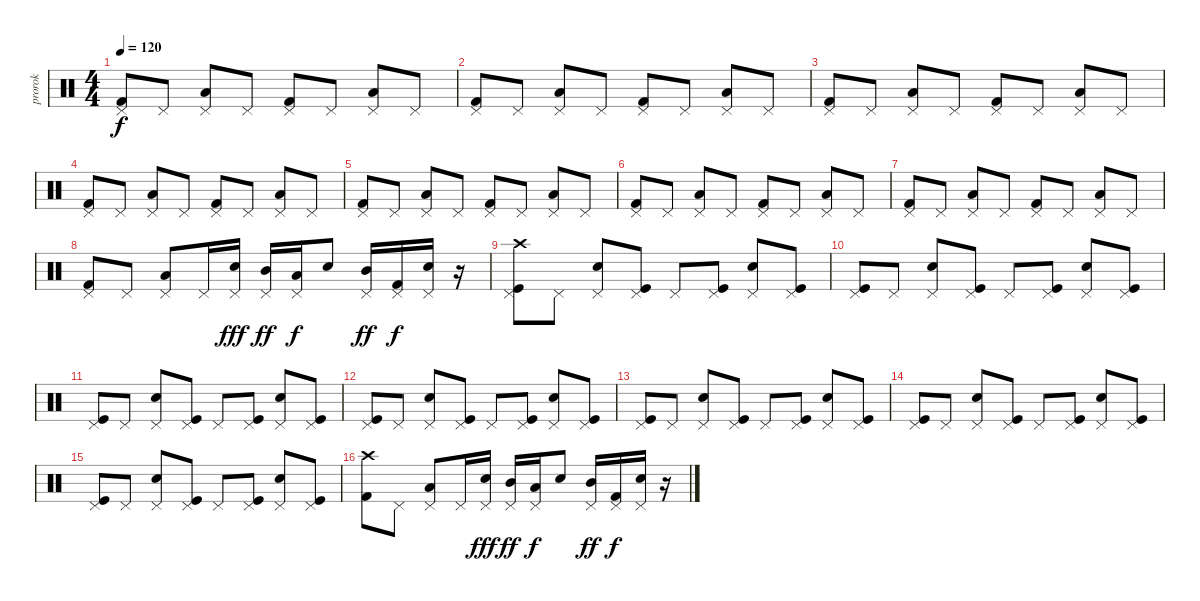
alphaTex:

\track ("prorok" "prorok") {instrument percussion}
\staff {score}
\articulation defaults
\ts (4 4)
\tempo 120
\clef neutral
\ks c
("Kick (hit) 2" "Pedal Hi-Hat (hit)").8{dy f} "Pedal Hi-Hat (hit)".8 ("Pedal Hi-Hat (hit)" "Low Tom (hit)").8 "Pedal Hi-Hat (hit)".8 ("Kick (hit) 2" "Pedal Hi-Hat (hit)").8 "Pedal Hi-Hat (hit)".8 ("Pedal Hi-Hat (hit)" "Low Tom (hit)").8 "Pedal Hi-Hat (hit)".8 |
("Kick (hit) 2" "Pedal Hi-Hat (hit)").8 "Pedal Hi-Hat (hit)".8 ("Pedal Hi-Hat (hit)" "Low Tom (hit)").8 "Pedal Hi-Hat (hit)".8 ("Kick (hit) 2" "Pedal Hi-Hat (hit)").8 "Pedal Hi-Hat (hit)".8 ("Pedal Hi-Hat (hit)" "Low Tom (hit)").8 "Pedal Hi-Hat (hit)".8 |
("Kick (hit) 2" "Pedal Hi-Hat (hit)").8 "Pedal Hi-Hat (hit)".8 ("Pedal Hi-Hat (hit)" "Low Tom (hit)").8 "Pedal Hi-Hat (hit)".8 ("Kick (hit) 2" "Pedal Hi-Hat (hit)").8 "Pedal Hi-Hat (hit)".8 ("Pedal Hi-Hat (hit)" "Low Tom (hit)").8 "Pedal Hi-Hat (hit)".8 |
("Kick (hit) 2" "Pedal Hi-Hat (hit)").8 "Pedal Hi-Hat (hit)".8 ("Pedal Hi-Hat (hit)" "Low Tom (hit)").8 "Pedal Hi-Hat (hit)".8 ("Kick (hit) 2" "Pedal Hi-Hat (hit)").8 "Pedal Hi-Hat (hit)".8 ("Pedal Hi-Hat (hit)" "Low Tom (hit)").8 "Pedal Hi-Hat (hit)".8 |
("Kick (hit) 2" "Pedal Hi-Hat (hit)").8 "Pedal Hi-Hat (hit)".8 ("Pedal Hi-Hat (hit)" "Low Tom (hit)").8 "Pedal Hi-Hat (hit)".8 ("Kick (hit) 2" "Pedal Hi-Hat (hit)").8 "Pedal Hi-Hat (hit)".8 ("Pedal Hi-Hat (hit)" "Low Tom (hit)").8 "Pedal Hi-Hat (hit)".8 |
("Kick (hit) 2" "Pedal Hi-Hat (hit)").8 "Pedal Hi-Hat (hit)".8 ("Pedal Hi-Hat (hit)" "Low Tom (hit)").8 "Pedal Hi-Hat (hit)".8 ("Kick (hit) 2" "Pedal Hi-Hat (hit)").8 "Pedal Hi-Hat (hit)".8 ("Pedal Hi-Hat (hit)" "Low Tom (hit)").8 "Pedal Hi-Hat (hit)".8 |
("Kick (hit) 2" "Pedal Hi-Hat (hit)").8 "Pedal Hi-Hat (hit)".8 ("Pedal Hi-Hat (hit)" "Low Tom (hit)").8 "Pedal Hi-Hat (hit)".8 ("Kick (hit) 2" "Pedal Hi-Hat (hit)").8 "Pedal Hi-Hat (hit)".8 ("Pedal Hi-Hat (hit)" "Low Tom (hit)").8 "Pedal Hi-Hat (hit)".8 |
("Kick (hit) 2" "Pedal Hi-Hat (hit)").8 "Pedal Hi-Hat (hit)".8 ("Low Tom (hit)" "Pedal Hi-Hat (hit)").8 "Pedal Hi-Hat (hit)".16 ("Electric Snare (hit)" "Pedal Hi-Hat (hit)").16{dy fff} ("Mid Tom (hit)" "Pedal Hi-Hat (hit)").16{dy ff} ("Low Tom (hit)" "Pedal Hi-Hat (hit)").16{dy f} "Electric Snare (hit)".8 ("Mid Tom (hit)" "Pedal Hi-Hat (hit)").16{dy ff} ("Kick (hit) 2" "Pedal Hi-Hat (hit)").16{dy f} ("Electric Snare (hit)" "Pedal Hi-Hat (hit)").16 r.16 |
("Kick (hit)" "Pedal Hi-Hat (hit)" "Crash high (hit)").8 "Pedal Hi-Hat (hit)".8 ("Electric Snare (hit)" "Pedal Hi-Hat (hit)").8 ("Kick (hit)" "Pedal Hi-Hat (hit)").8 "Pedal Hi-Hat (hit)".8 ("Kick (hit)" "Pedal Hi-Hat (hit)").8 ("Electric Snare (hit)" "Pedal Hi-Hat (hit)").8 ("Kick (hit)" "Pedal Hi-Hat (hit)").8 |
("Kick (hit)" "Pedal Hi-Hat (hit)").8 "Pedal Hi-Hat (hit)".8 ("Electric Snare (hit)" "Pedal Hi-Hat (hit)").8 ("Kick (hit)" "Pedal Hi-Hat (hit)").8 "Pedal Hi-Hat (hit)".8 ("Kick (hit)" "Pedal Hi-Hat (hit)").8 ("Electric Snare (hit)" "Pedal Hi-Hat (hit)").8 ("Kick (hit)" "Pedal Hi-Hat (hit)").8 |
("Kick (hit)" "Pedal Hi-Hat (hit)").8 "Pedal Hi-Hat (hit)".8 ("Electric Snare (hit)" "Pedal Hi-Hat (hit)").8 ("Kick (hit)" "Pedal Hi-Hat (hit)").8 "Pedal Hi-Hat (hit)".8 ("Kick (hit)" "Pedal Hi-Hat (hit)").8 ("Electric Snare (hit)" "Pedal Hi-Hat (hit)").8 ("Kick (hit)" "Pedal Hi-Hat (hit)").8 |
("Kick (hit)" "Pedal Hi-Hat (hit)").8 "Pedal Hi-Hat (hit)".8 ("Electric Snare (hit)" "Pedal Hi-Hat (hit)").8 ("Kick (hit)" "Pedal Hi-Hat (hit)").8 "Pedal Hi-Hat (hit)".8 ("Kick (hit)" "Pedal Hi-Hat (hit)").8 ("Electric Snare (hit)" "Pedal Hi-Hat (hit)").8 ("Kick (hit)" "Pedal Hi-Hat (hit)").8 |
("Kick (hit)" "Pedal Hi-Hat (hit)").8 "Pedal Hi-Hat (hit)".8 ("Electric Snare (hit)" "Pedal Hi-Hat (hit)").8 ("Kick (hit)" "Pedal Hi-Hat (hit)").8 "Pedal Hi-Hat (hit)".8 ("Kick (hit)" "Pedal Hi-Hat (hit)").8 ("Electric Snare (hit)" "Pedal Hi-Hat (hit)").8 ("Kick (hit)" "Pedal Hi-Hat (hit)").8 |
("Kick (hit)" "Pedal Hi-Hat (hit)").8 "Pedal Hi-Hat (hit)".8 ("Electric Snare (hit)" "Pedal Hi-Hat (hit)").8 ("Kick (hit)" "Pedal Hi-Hat (hit)").8 "Pedal Hi-Hat (hit)".8 ("Kick (hit)" "Pedal Hi-Hat (hit)").8 ("Electric Snare (hit)" "Pedal Hi-Hat (hit)").8 ("Kick (hit)" "Pedal Hi-Hat (hit)").8 |
("Kick (hit)" "Pedal Hi-Hat (hit)").8 "Pedal Hi-Hat (hit)".8 ("Electric Snare (hit)" "Pedal Hi-Hat (hit)").8 ("Kick (hit)" "Pedal Hi-Hat (hit)").8 "Pedal Hi-Hat (hit)".8 ("Kick (hit)" "Pedal Hi-Hat (hit)").8 ("Electric Snare (hit)" "Pedal Hi-Hat (hit)").8 ("Kick (hit)" "Pedal Hi-Hat (hit)").8 |
("Kick (hit) 2" "Crash high (hit)").8 "Pedal Hi-Hat (hit)".8 ("Low Tom (hit)" "Pedal Hi-Hat (hit)").8 "Pedal Hi-Hat (hit)".16 ("Electric Snare (hit)" "Pedal Hi-Hat (hit)").16{dy fff} ("Mid Tom (hit)" "Pedal Hi-Hat (hit)").16{dy ff} ("Low Tom (hit)" "Pedal Hi-Hat (hit)").16{dy f} "Electric Snare (hit)".8 ("Mid Tom (hit)" "Pedal Hi-Hat (hit)").16{dy ff} ("Kick (hit) 2" "Pedal Hi-Hat (hit)").16{dy f} ("Electric Snare (hit)" "Pedal Hi-Hat (hit)").16 r.16
